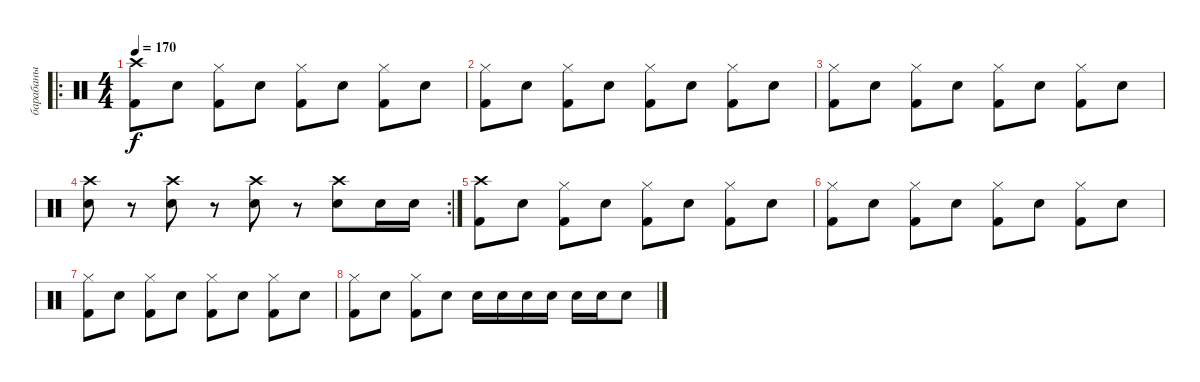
\track ("барабаны" "барабаны") {instrument percussion}
\staff {score}
\articulation defaults
\ro
\ts (4 4)
\tempo 170
\clef neutral
\ks c
("Crash high (hit)" "Kick (hit) 2").8{dy f} "Snare (hit) 2".8 ("Hi-Hat (closed)" "Kick (hit) 2").8 "Snare (hit) 2".8 ("Hi-Hat (closed)" "Kick (hit) 2").8 "Snare (hit) 2".8 ("Hi-Hat (closed)" "Kick (hit) 2").8 "Snare (hit) 2".8 |
("Hi-Hat (closed)" "Kick (hit) 2").8 "Snare (hit) 2".8 ("Hi-Hat (closed)" "Kick (hit) 2").8 "Snare (hit) 2".8 ("Hi-Hat (closed)" "Kick (hit) 2").8 "Snare (hit) 2".8 ("Hi-Hat (closed)" "Kick (hit) 2").8 "Snare (hit) 2".8 |
("Hi-Hat (closed)" "Kick (hit) 2").8 "Snare (hit) 2".8 ("Hi-Hat (closed)" "Kick (hit) 2").8 "Snare (hit) 2".8 ("Hi-Hat (closed)" "Kick (hit) 2").8 "Snare (hit) 2".8 ("Hi-Hat (closed)" "Kick (hit) 2").8 "Snare (hit) 2".8 |
\rc 2
("Crash high (hit)" "Snare (hit) 2").8 r.8 ("Crash high (hit)" "Snare (hit) 2").8 r.8 ("Crash high (hit)" "Snare (hit) 2").8 r.8 ("Crash high (hit)" "Snare (hit) 2").8 "Snare (hit) 2".16 "Snare (hit) 2".16 |
("Crash high (hit)" "Kick (hit) 2").8 "Snare (hit) 2".8 ("Hi-Hat (closed)" "Kick (hit) 2").8 "Snare (hit) 2".8 ("Hi-Hat (closed)" "Kick (hit) 2").8 "Snare (hit) 2".8 ("Hi-Hat (closed)" "Kick (hit) 2").8 "Snare (hit) 2".8 |
("Hi-Hat (closed)" "Kick (hit) 2").8 "Snare (hit) 2".8 ("Hi-Hat (closed)" "Kick (hit) 2").8 "Snare (hit) 2".8 ("Hi-Hat (closed)" "Kick (hit) 2").8 "Snare (hit) 2".8 ("Hi-Hat (closed)" "Kick (hit) 2").8 "Snare (hit) 2".8 |
("Hi-Hat (closed)" "Kick (hit) 2").8 "Snare (hit) 2".8 ("Hi-Hat (closed)" "Kick (hit) 2").8 "Snare (hit) 2".8 ("Hi-Hat (closed)" "Kick (hit) 2").8 "Snare (hit) 2".8 ("Hi-Hat (closed)" "Kick (hit) 2").8 "Snare (hit) 2".8 |
("Hi-Hat (closed)" "Kick (hit) 2").8 "Snare (hit) 2".8 ("Hi-Hat (closed)" "Kick (hit) 2").8 "Snare (hit) 2".8 "Snare (hit) 2".16 "Snare (hit) 2".16 "Snare (hit) 2".16 "Snare (hit) 2".16 "Electric Snare (hit)".16 "Electric Snare (hit)".16 "Electric Snare (hit)".8
